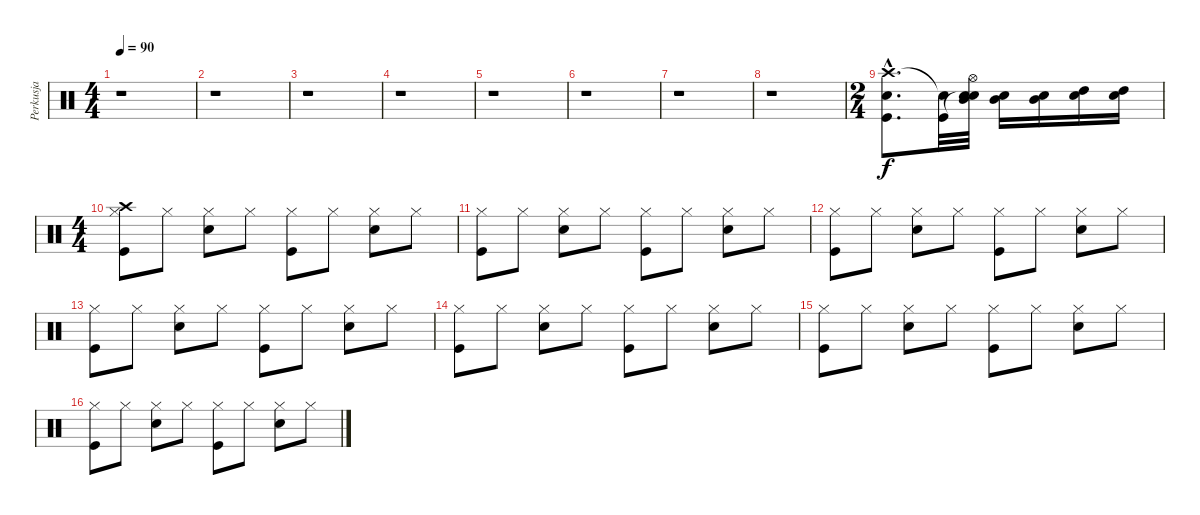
\track ("Perkusja" "Perkusja") {instrument percussion}
\staff {score}
\articulation defaults
\ts (4 4)
\tempo 90
\clef neutral
\ks c
r.1{dy f} |
r.1 |
r.1 |
r.1 |
r.1 |
r.1 |
r.1 |
r.1 |
\ts (2 4)
("Crash high (hit)"{hac} "Electric Snare (hit)"{hac} "Kick (hit)"{hac}).8{d} ("Snare (hit)"{t} "Kick (hit)").32 ("Hi-Hat (open)" "Snare (hit)"{t} "Mid Tom (hit)" "Electric Snare (hit)").32 ("Mid Tom (hit)" "Electric Snare (hit)").16 ("Mid Tom (hit)" "Electric Snare (hit)").16 ("High Tom (hit)" "Electric Snare (hit)").16 ("High Tom (hit)" "Electric Snare (hit)").16 |
\ts (4 4)
("Hi-Hat (closed)" "Crash high (hit)" "Kick (hit)").8 "Hi-Hat (closed)".8 ("Hi-Hat (closed)" "Electric Snare (hit)").8 "Hi-Hat (closed)".8 ("Hi-Hat (closed)" "Kick (hit)").8 "Hi-Hat (closed)".8 ("Hi-Hat (closed)" "Electric Snare (hit)").8 "Hi-Hat (closed)".8 |
("Hi-Hat (closed)" "Kick (hit)").8 "Hi-Hat (closed)".8 ("Hi-Hat (closed)" "Electric Snare (hit)").8 "Hi-Hat (closed)".8 ("Hi-Hat (closed)" "Kick (hit)").8 "Hi-Hat (closed)".8 ("Hi-Hat (closed)" "Electric Snare (hit)").8 "Hi-Hat (closed)".8 |
("Hi-Hat (closed)" "Kick (hit)").8 "Hi-Hat (closed)".8 ("Hi-Hat (closed)" "Electric Snare (hit)").8 "Hi-Hat (closed)".8 ("Hi-Hat (closed)" "Kick (hit)").8 "Hi-Hat (closed)".8 ("Hi-Hat (closed)" "Electric Snare (hit)").8 "Hi-Hat (closed)".8 |
("Hi-Hat (closed)" "Kick (hit)").8 "Hi-Hat (closed)".8 ("Hi-Hat (closed)" "Electric Snare (hit)").8 "Hi-Hat (closed)".8 ("Hi-Hat (closed)" "Kick (hit)").8 "Hi-Hat (closed)".8 ("Hi-Hat (closed)" "Electric Snare (hit)").8 "Hi-Hat (closed)".8 |
("Hi-Hat (closed)" "Kick (hit)").8 "Hi-Hat (closed)".8 ("Hi-Hat (closed)" "Electric Snare (hit)").8 "Hi-Hat (closed)".8 ("Hi-Hat (closed)" "Kick (hit)").8 "Hi-Hat (closed)".8 ("Hi-Hat (closed)" "Electric Snare (hit)").8 "Hi-Hat (closed)".8 |
("Hi-Hat (closed)" "Kick (hit)").8 "Hi-Hat (closed)".8 ("Hi-Hat (closed)" "Electric Snare (hit)").8 "Hi-Hat (closed)".8 ("Hi-Hat (closed)" "Kick (hit)").8 "Hi-Hat (closed)".8 ("Hi-Hat (closed)" "Electric Snare (hit)").8 "Hi-Hat (closed)".8 |
("Hi-Hat (closed)" "Kick (hit)").8 "Hi-Hat (closed)".8 ("Hi-Hat (closed)" "Electric Snare (hit)").8 "Hi-Hat (closed)".8 ("Hi-Hat (closed)" "Kick (hit)").8 "Hi-Hat (closed)".8 ("Hi-Hat (closed)" "Electric Snare (hit)").8 "Hi-Hat (closed)".8
